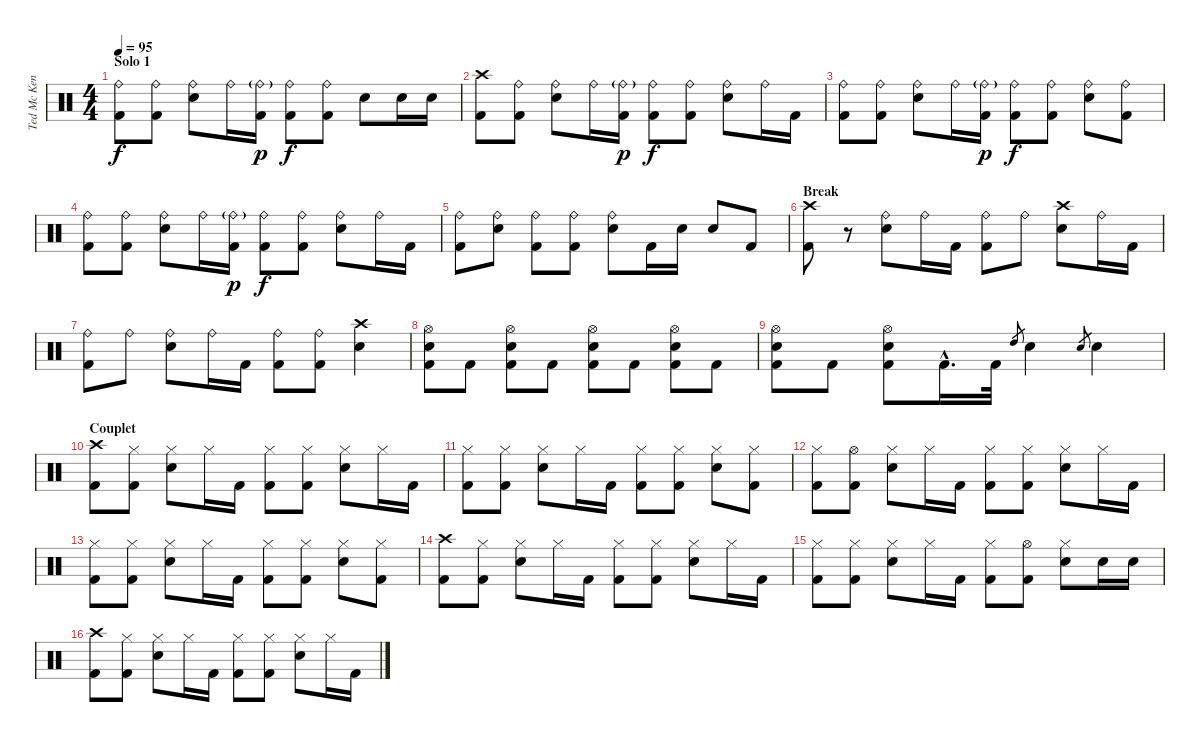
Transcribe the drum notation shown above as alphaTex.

\track ("Ted Mc Kenna" "Ted Mc Ken") {instrument percussion}
\staff {score}
\articulation defaults
\ts (4 4)
\section ("" "Solo 1")
\tempo 95
\clef neutral
\ks c
("Ride (bell)" "Kick (hit) 2").8{dy f} ("Ride (bell)" "Kick (hit) 2").8 ("Ride (bell)" "Snare (hit) 2").8 "Ride (bell)".16 ("Ride (bell)"{g} "Kick (hit) 2").16{dy p} ("Ride (bell)" "Kick (hit) 2").8{dy f} ("Ride (bell)" "Kick (hit) 2").8 "Snare (hit) 2".8 "Snare (hit) 2".16 "Snare (hit) 2".16 |
("Crash high (hit)" "Kick (hit) 2").8 ("Ride (bell)" "Kick (hit) 2").8 ("Ride (bell)" "Snare (hit) 2").8 "Ride (bell)".16 ("Ride (bell)"{g} "Kick (hit) 2").16{dy p} ("Ride (bell)" "Kick (hit) 2").8{dy f} ("Ride (bell)" "Kick (hit) 2").8 ("Ride (bell)" "Snare (hit) 2").8 "Ride (bell)".16 "Kick (hit) 2".16 |
("Ride (bell)" "Kick (hit) 2").8 ("Ride (bell)" "Kick (hit) 2").8 ("Ride (bell)" "Snare (hit) 2").8 "Ride (bell)".16 ("Ride (bell)"{g} "Kick (hit) 2").16{dy p} ("Ride (bell)" "Kick (hit) 2").8{dy f} ("Ride (bell)" "Kick (hit) 2").8 ("Ride (bell)" "Snare (hit) 2").8 ("Ride (bell)" "Kick (hit) 2").8 |
("Ride (bell)" "Kick (hit) 2").8 ("Ride (bell)" "Kick (hit) 2").8 ("Ride (bell)" "Snare (hit) 2").8 "Ride (bell)".16 ("Ride (bell)"{g} "Kick (hit) 2").16{dy p} ("Ride (bell)" "Kick (hit) 2").8{dy f} ("Ride (bell)" "Kick (hit) 2").8 ("Ride (bell)" "Snare (hit) 2").8 "Ride (bell)".16 "Kick (hit) 2".16 |
("Ride (bell)" "Kick (hit) 2").8 ("Ride (bell)" "Snare (hit) 2").8 ("Ride (bell)" "Kick (hit) 2").8 ("Ride (bell)" "Kick (hit) 2").8 ("Ride (bell)" "Snare (hit) 2").8 "Kick (hit) 2".16 "Snare (hit) 2".16 "Snare (hit) 2".8 "Kick (hit) 2".8 |
\section ("" "Break")
("Crash high (hit)" "Kick (hit) 2").8 r.8 ("Ride (bell)" "Snare (hit) 2").8 "Ride (bell)".16 "Kick (hit) 2".16 ("Ride (bell)" "Kick (hit) 2").8 "Ride (bell)".8 ("Crash high (hit)" "Snare (hit) 2").8 "Ride (bell)".16 "Kick (hit) 2".16 |
("Ride (bell)" "Kick (hit) 2").8 "Ride (bell)".8 ("Ride (bell)" "Snare (hit) 2").8 "Ride (bell)".16 "Kick (hit) 2".16 ("Ride (bell)" "Kick (hit) 2").8 ("Ride (bell)" "Kick (hit) 2").8 ("Crash high (hit)" "Snare (hit) 2").4 |
("Hi-Hat (open)" "Snare (hit) 2" "Kick (hit) 2").8 "Kick (hit) 2".8 ("Hi-Hat (open)" "Snare (hit) 2" "Kick (hit) 2").8 "Kick (hit) 2".8 ("Hi-Hat (open)" "Snare (hit) 2" "Kick (hit) 2").8 "Kick (hit) 2".8 ("Hi-Hat (open)" "Snare (hit) 2" "Kick (hit) 2").8 "Kick (hit) 2".8 |
("Hi-Hat (open)" "Snare (hit) 2" "Kick (hit) 2").8 "Kick (hit) 2".8 ("Hi-Hat (open)" "Snare (hit) 2" "Kick (hit) 2").8 "Kick (hit) 2"{hac}.16{d} "Kick (hit) 2".32 "High Tom (hit)".8{gr} "Snare (hit) 2".4 "Snare (hit) 2".8{gr} "Snare (hit) 2".4 |
\section ("" "Couplet")
("Crash high (hit)" "Kick (hit) 2").8 ("Hi-Hat (closed)" "Kick (hit) 2").8 ("Hi-Hat (closed)" "Snare (hit) 2").8 "Hi-Hat (closed)".16 "Kick (hit) 2".16 ("Hi-Hat (closed)" "Kick (hit) 2").8 ("Hi-Hat (closed)" "Kick (hit) 2").8 ("Hi-Hat (closed)" "Snare (hit) 2").8 "Hi-Hat (closed)".16 "Kick (hit) 2".16 |
("Hi-Hat (closed)" "Kick (hit) 2").8 ("Hi-Hat (closed)" "Kick (hit) 2").8 ("Hi-Hat (closed)" "Snare (hit) 2").8 "Hi-Hat (closed)".16 "Kick (hit) 2".16 ("Hi-Hat (closed)" "Kick (hit) 2").8 ("Hi-Hat (closed)" "Kick (hit) 2").8 ("Hi-Hat (closed)" "Snare (hit) 2").8 ("Hi-Hat (closed)" "Kick (hit) 2").8 |
("Hi-Hat (closed)" "Kick (hit) 2").8 ("Hi-Hat (open)" "Kick (hit) 2").8 ("Hi-Hat (closed)" "Snare (hit) 2").8 "Hi-Hat (closed)".16 "Kick (hit) 2".16 ("Hi-Hat (closed)" "Kick (hit) 2").8 ("Hi-Hat (closed)" "Kick (hit) 2").8 ("Hi-Hat (closed)" "Snare (hit) 2").8 "Hi-Hat (closed)".16 "Kick (hit) 2".16 |
("Hi-Hat (closed)" "Kick (hit) 2").8 ("Hi-Hat (closed)" "Kick (hit) 2").8 ("Hi-Hat (closed)" "Snare (hit) 2").8 "Hi-Hat (closed)".16 "Kick (hit) 2".16 ("Hi-Hat (closed)" "Kick (hit) 2").8 ("Hi-Hat (closed)" "Kick (hit) 2").8 ("Hi-Hat (closed)" "Snare (hit) 2").8 ("Hi-Hat (closed)" "Kick (hit) 2").8 |
("Crash high (hit)" "Kick (hit) 2").8 ("Hi-Hat (closed)" "Kick (hit) 2").8 ("Hi-Hat (closed)" "Snare (hit) 2").8 "Hi-Hat (closed)".16 "Kick (hit) 2".16 ("Hi-Hat (closed)" "Kick (hit) 2").8 ("Hi-Hat (closed)" "Kick (hit) 2").8 ("Hi-Hat (closed)" "Snare (hit) 2").8 "Hi-Hat (closed)".16 "Kick (hit) 2".16 |
("Hi-Hat (closed)" "Kick (hit) 2").8 ("Hi-Hat (closed)" "Kick (hit) 2").8 ("Hi-Hat (closed)" "Snare (hit) 2").8 "Hi-Hat (closed)".16 "Kick (hit) 2".16 ("Hi-Hat (closed)" "Kick (hit) 2").8 ("Hi-Hat (open)" "Kick (hit) 2").8 ("Hi-Hat (closed)" "Snare (hit) 2").8 "Snare (hit) 2".16 "Snare (hit) 2".16 |
("Crash high (hit)" "Kick (hit) 2").8 ("Hi-Hat (closed)" "Kick (hit) 2").8 ("Hi-Hat (closed)" "Snare (hit) 2").8 "Hi-Hat (closed)".16 "Kick (hit) 2".16 ("Hi-Hat (closed)" "Kick (hit) 2").8 ("Hi-Hat (closed)" "Kick (hit) 2").8 ("Hi-Hat (closed)" "Snare (hit) 2").8 "Hi-Hat (closed)".16 "Kick (hit) 2".16
